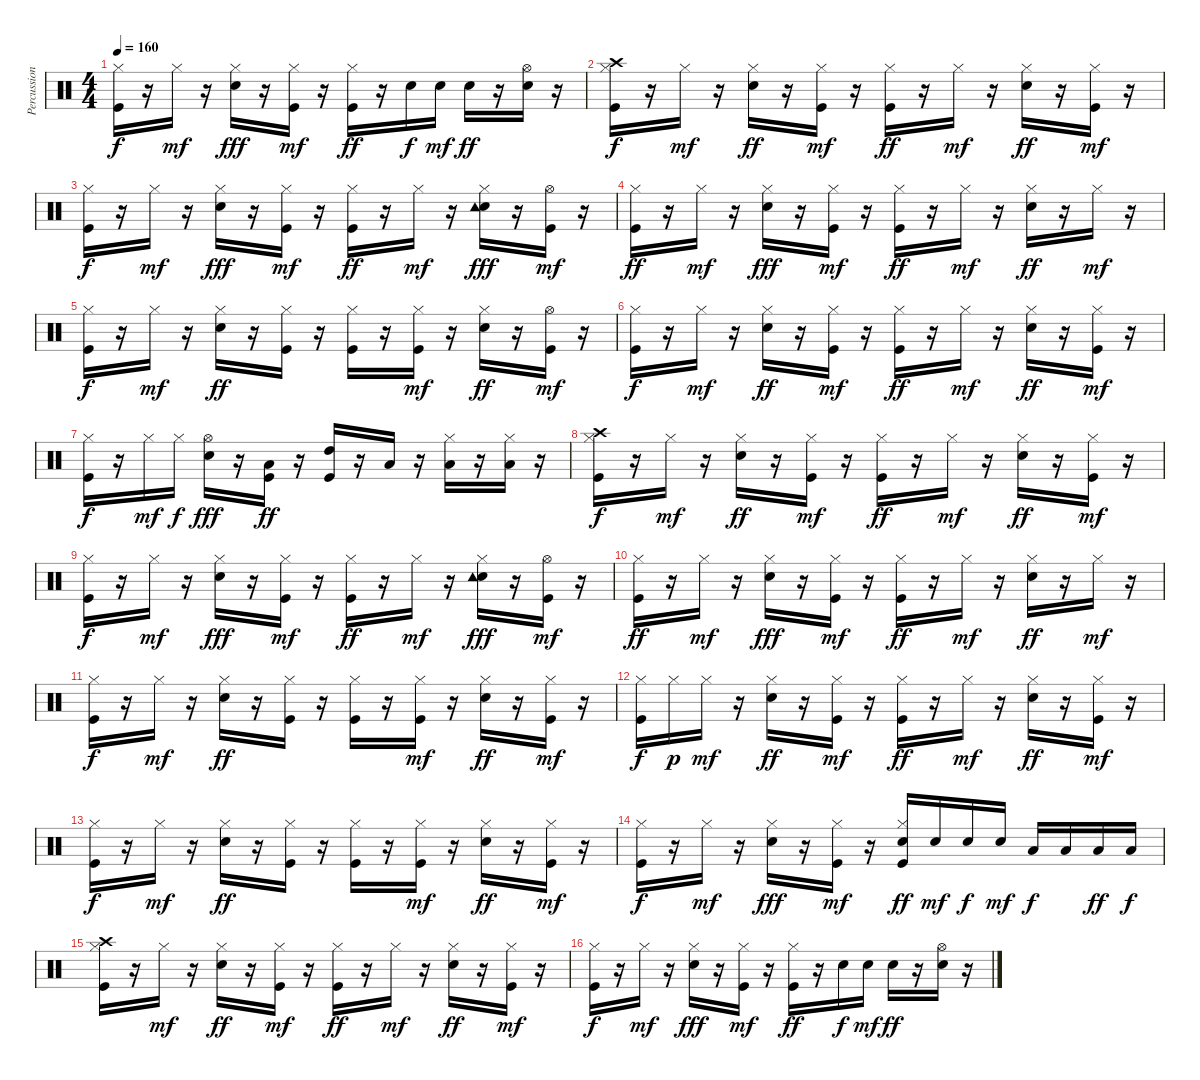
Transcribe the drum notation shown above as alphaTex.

\track ("Percussions" "Percussion") {instrument percussion}
\staff {score}
\articulation defaults
\ts (4 4)
\tempo 160
\clef neutral
\ks c
("Kick (hit)" "Hi-Hat (closed)").16{dy f} r.16 "Hi-Hat (closed)".16{dy mf} r.16 ("Snare (hit) 2" "Hi-Hat (closed)").16{dy fff} r.16 ("Kick (hit)" "Hi-Hat (closed)").16{dy mf} r.16 ("Kick (hit)" "Hi-Hat (closed)").16{dy ff} r.16 "Snare (hit) 2".16{dy f} "Snare (hit) 2".16{dy mf} "Snare (hit) 2".16{dy ff} r.16 ("Snare (hit) 2" "Hi-Hat (open)").16 r.16 |
("Kick (hit)" "Hi-Hat (closed)" "Crash high (hit)").16{dy f} r.16 "Hi-Hat (closed)".16{dy mf} r.16 ("Snare (hit) 2" "Hi-Hat (closed)").16{dy ff} r.16 ("Kick (hit)" "Hi-Hat (closed)").16{dy mf} r.16 ("Kick (hit)" "Hi-Hat (closed)").16{dy ff} r.16 "Hi-Hat (closed)".16{dy mf} r.16 ("Snare (hit) 2" "Hi-Hat (closed)").16{dy ff} r.16 ("Kick (hit)" "Hi-Hat (closed)").16{dy mf} r.16 |
("Kick (hit)" "Hi-Hat (closed)").16{dy f} r.16 "Hi-Hat (closed)".16{dy mf} r.16 ("Snare (hit) 2" "Hi-Hat (closed)").16{dy fff} r.16 ("Kick (hit)" "Hi-Hat (closed)").16{dy mf} r.16 ("Kick (hit)" "Hi-Hat (closed)").16{dy ff} r.16 "Hi-Hat (closed)".16{dy mf} r.16 ("Snare (hit) 2" "Hi-Hat (closed)" "Tambourine (hit)").16{dy fff} r.16 ("Kick (hit)" "Hi-Hat (open)").16{dy mf} r.16 |
("Kick (hit)" "Hi-Hat (closed)").16{dy ff} r.16 "Hi-Hat (closed)".16{dy mf} r.16 ("Snare (hit) 2" "Hi-Hat (closed)").16{dy fff} r.16 ("Kick (hit)" "Hi-Hat (closed)").16{dy mf} r.16 ("Kick (hit)" "Hi-Hat (closed)").16{dy ff} r.16 "Hi-Hat (closed)".16{dy mf} r.16 ("Snare (hit) 2" "Hi-Hat (closed)").16{dy ff} r.16 "Hi-Hat (closed)".16{dy mf} r.16 |
("Kick (hit)" "Hi-Hat (closed)").16{dy f} r.16 "Hi-Hat (closed)".16{dy mf} r.16 ("Snare (hit) 2" "Hi-Hat (closed)").16{dy ff} r.16 ("Kick (hit)" "Hi-Hat (closed)").16 r.16 ("Kick (hit)" "Hi-Hat (closed)").16 r.16 ("Kick (hit)" "Hi-Hat (closed)").16{dy mf} r.16 ("Snare (hit) 2" "Hi-Hat (closed)").16{dy ff} r.16 ("Kick (hit)" "Hi-Hat (open)").16{dy mf} r.16 |
("Kick (hit)" "Hi-Hat (closed)").16{dy f} r.16 "Hi-Hat (closed)".16{dy mf} r.16 ("Snare (hit) 2" "Hi-Hat (closed)").16{dy ff} r.16 ("Kick (hit)" "Hi-Hat (closed)").16{dy mf} r.16 ("Kick (hit)" "Hi-Hat (closed)").16{dy ff} r.16 "Hi-Hat (closed)".16{dy mf} r.16 ("Snare (hit) 2" "Hi-Hat (closed)").16{dy ff} r.16 ("Kick (hit)" "Hi-Hat (closed)").16{dy mf} r.16 |
("Kick (hit)" "Hi-Hat (closed)").16{dy f} r.16 "Hi-Hat (closed)".16{dy mf} "Hi-Hat (closed)".16{dy f} ("Snare (hit) 2" "Hi-Hat (open)").16{dy fff} r.16 ("Kick (hit)" "Low Tom (hit)").16{dy ff} r.16 ("Kick (hit)" "High Tom (hit)").16 r.16 "Low Tom (hit)".16 r.16 ("Hi-Hat (closed)" "Low Tom (hit)").16 r.16 ("Hi-Hat (closed)" "Low Floor Tom (hit)").16 r.16 |
("Kick (hit)" "Hi-Hat (closed)" "Crash high (hit)").16{dy f} r.16 "Hi-Hat (closed)".16{dy mf} r.16 ("Snare (hit) 2" "Hi-Hat (closed)").16{dy ff} r.16 ("Kick (hit)" "Hi-Hat (closed)").16{dy mf} r.16 ("Kick (hit)" "Hi-Hat (closed)").16{dy ff} r.16 "Hi-Hat (closed)".16{dy mf} r.16 ("Snare (hit) 2" "Hi-Hat (closed)").16{dy ff} r.16 ("Kick (hit)" "Hi-Hat (closed)").16{dy mf} r.16 |
("Kick (hit)" "Hi-Hat (closed)").16{dy f} r.16 "Hi-Hat (closed)".16{dy mf} r.16 ("Snare (hit) 2" "Hi-Hat (closed)").16{dy fff} r.16 ("Kick (hit)" "Hi-Hat (closed)").16{dy mf} r.16 ("Kick (hit)" "Hi-Hat (closed)").16{dy ff} r.16 "Hi-Hat (closed)".16{dy mf} r.16 ("Snare (hit) 2" "Hi-Hat (closed)" "Tambourine (hit)").16{dy fff} r.16 ("Kick (hit)" "Hi-Hat (open)").16{dy mf} r.16 |
("Kick (hit)" "Hi-Hat (closed)").16{dy ff} r.16 "Hi-Hat (closed)".16{dy mf} r.16 ("Snare (hit) 2" "Hi-Hat (closed)").16{dy fff} r.16 ("Kick (hit)" "Hi-Hat (closed)").16{dy mf} r.16 ("Kick (hit)" "Hi-Hat (closed)").16{dy ff} r.16 "Hi-Hat (closed)".16{dy mf} r.16 ("Snare (hit) 2" "Hi-Hat (closed)").16{dy ff} r.16 "Hi-Hat (closed)".16{dy mf} r.16 |
("Kick (hit)" "Hi-Hat (closed)").16{dy f} r.16 "Hi-Hat (closed)".16{dy mf} r.16 ("Snare (hit) 2" "Hi-Hat (closed)").16{dy ff} r.16 ("Kick (hit)" "Hi-Hat (closed)").16 r.16 ("Kick (hit)" "Hi-Hat (closed)").16 r.16 ("Kick (hit)" "Hi-Hat (closed)").16{dy mf} r.16 ("Snare (hit) 2" "Hi-Hat (closed)").16{dy ff} r.16 ("Kick (hit)" "Hi-Hat (closed)").16{dy mf} r.16 |
("Kick (hit)" "Hi-Hat (closed)").16{dy f} "Hi-Hat (closed)".16{dy p} "Hi-Hat (closed)".16{dy mf} r.16 ("Snare (hit) 2" "Hi-Hat (closed)").16{dy ff} r.16 ("Kick (hit)" "Hi-Hat (closed)").16{dy mf} r.16 ("Kick (hit)" "Hi-Hat (closed)").16{dy ff} r.16 "Hi-Hat (closed)".16{dy mf} r.16 ("Snare (hit) 2" "Hi-Hat (closed)").16{dy ff} r.16 ("Kick (hit)" "Hi-Hat (closed)").16{dy mf} r.16 |
("Kick (hit)" "Hi-Hat (closed)").16{dy f} r.16 "Hi-Hat (closed)".16{dy mf} r.16 ("Snare (hit) 2" "Hi-Hat (closed)").16{dy ff} r.16 ("Kick (hit)" "Hi-Hat (closed)").16 r.16 ("Kick (hit)" "Hi-Hat (closed)").16 r.16 ("Kick (hit)" "Hi-Hat (closed)").16{dy mf} r.16 ("Snare (hit) 2" "Hi-Hat (closed)").16{dy ff} r.16 ("Kick (hit)" "Hi-Hat (closed)").16{dy mf} r.16 |
("Kick (hit)" "Hi-Hat (closed)").16{dy f} r.16 "Hi-Hat (closed)".16{dy mf} r.16 ("Snare (hit) 2" "Hi-Hat (closed)").16{dy fff} r.16 ("Kick (hit)" "Hi-Hat (closed)").16{dy mf} r.16 ("Kick (hit)" "Snare (hit) 2" "Hi-Hat (closed)").16{dy ff} "Snare (hit) 2".16{dy mf} "Snare (hit) 2".16{dy f} "Snare (hit) 2".16{dy mf} "Low Tom (hit)".16{dy f} "Low Tom (hit)".16 "Low Tom (hit)".16{dy ff} "Low Tom (hit)".16{dy f} |
("Kick (hit)" "Hi-Hat (closed)" "Crash high (hit)").16 r.16 "Hi-Hat (closed)".16{dy mf} r.16 ("Snare (hit) 2" "Hi-Hat (closed)").16{dy ff} r.16 ("Kick (hit)" "Hi-Hat (closed)").16{dy mf} r.16 ("Kick (hit)" "Hi-Hat (closed)").16{dy ff} r.16 "Hi-Hat (closed)".16{dy mf} r.16 ("Snare (hit) 2" "Hi-Hat (closed)").16{dy ff} r.16 ("Kick (hit)" "Hi-Hat (closed)").16{dy mf} r.16 |
("Kick (hit)" "Hi-Hat (closed)").16{dy f} r.16 "Hi-Hat (closed)".16{dy mf} r.16 ("Snare (hit) 2" "Hi-Hat (closed)").16{dy fff} r.16 ("Kick (hit)" "Hi-Hat (closed)").16{dy mf} r.16 ("Kick (hit)" "Hi-Hat (closed)").16{dy ff} r.16 "Snare (hit) 2".16{dy f} "Snare (hit) 2".16{dy mf} "Snare (hit) 2".16{dy ff} r.16 ("Snare (hit) 2" "Hi-Hat (open)").16 r.16
